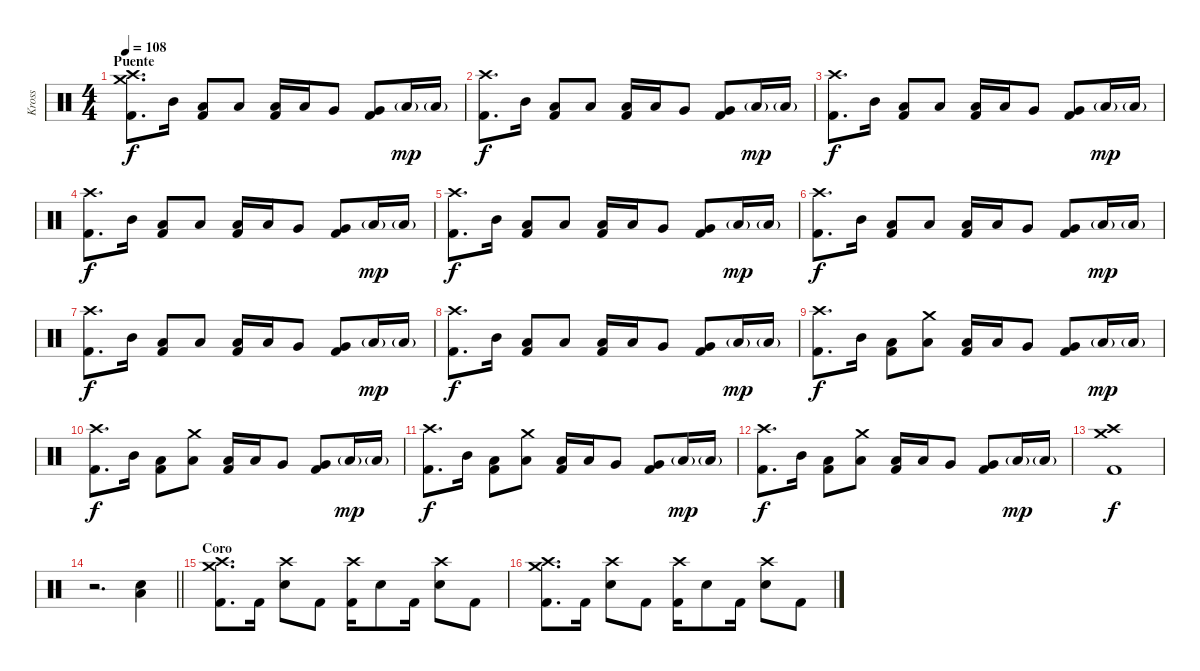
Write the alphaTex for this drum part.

\track ("Kross" "Kross") {instrument percussion}
\staff {score}
\articulation defaults
\ts (4 4)
\section ("" "Puente")
\tempo 108
\clef neutral
\ks c
("Crash medium (hit)" "Crash high (hit)" "Kick (hit) 2").8{d dy f} "Mid Tom (hit)".16 ("Low Tom (hit)" "Kick (hit) 2").8 "Low Tom (hit)".8 ("Low Tom (hit)" "Kick (hit) 2").16 "Low Tom (hit)".16 "Very Low Tom (hit)".8 ("Very Low Tom (hit)" "Kick (hit) 2").8 "Low Floor Tom (hit)"{g}.16{dy mp} "Low Floor Tom (hit)"{g}.16 |
("Crash high (hit)" "Kick (hit) 2").8{d dy f} "Mid Tom (hit)".16 ("Low Tom (hit)" "Kick (hit) 2").8 "Low Tom (hit)".8 ("Low Tom (hit)" "Kick (hit) 2").16 "Low Tom (hit)".16 "Very Low Tom (hit)".8 ("Very Low Tom (hit)" "Kick (hit) 2").8 "Low Floor Tom (hit)"{g}.16{dy mp} "Low Floor Tom (hit)"{g}.16 |
("Crash high (hit)" "Kick (hit) 2").8{d dy f} "Mid Tom (hit)".16 ("Low Tom (hit)" "Kick (hit) 2").8 "Low Tom (hit)".8 ("Low Tom (hit)" "Kick (hit) 2").16 "Low Tom (hit)".16 "Very Low Tom (hit)".8 ("Very Low Tom (hit)" "Kick (hit) 2").8 "Low Floor Tom (hit)"{g}.16{dy mp} "Low Floor Tom (hit)"{g}.16 |
("Crash high (hit)" "Kick (hit) 2").8{d dy f} "Mid Tom (hit)".16 ("Low Tom (hit)" "Kick (hit) 2").8 "Low Tom (hit)".8 ("Low Tom (hit)" "Kick (hit) 2").16 "Low Tom (hit)".16 "Very Low Tom (hit)".8 ("Very Low Tom (hit)" "Kick (hit) 2").8 "Low Floor Tom (hit)"{g}.16{dy mp} "Low Floor Tom (hit)"{g}.16 |
("Crash high (hit)" "Kick (hit) 2").8{d dy f} "Mid Tom (hit)".16 ("Low Tom (hit)" "Kick (hit) 2").8 "Low Tom (hit)".8 ("Low Tom (hit)" "Kick (hit) 2").16 "Low Tom (hit)".16 "Very Low Tom (hit)".8 ("Very Low Tom (hit)" "Kick (hit) 2").8 "Low Floor Tom (hit)"{g}.16{dy mp} "Low Floor Tom (hit)"{g}.16 |
("Crash high (hit)" "Kick (hit) 2").8{d dy f} "Mid Tom (hit)".16 ("Low Tom (hit)" "Kick (hit) 2").8 "Low Tom (hit)".8 ("Low Tom (hit)" "Kick (hit) 2").16 "Low Tom (hit)".16 "Very Low Tom (hit)".8 ("Very Low Tom (hit)" "Kick (hit) 2").8 "Low Floor Tom (hit)"{g}.16{dy mp} "Low Floor Tom (hit)"{g}.16 |
("Crash high (hit)" "Kick (hit) 2").8{d dy f} "Mid Tom (hit)".16 ("Low Tom (hit)" "Kick (hit) 2").8 "Low Tom (hit)".8 ("Low Tom (hit)" "Kick (hit) 2").16 "Low Tom (hit)".16 "Very Low Tom (hit)".8 ("Very Low Tom (hit)" "Kick (hit) 2").8 "Low Floor Tom (hit)"{g}.16{dy mp} "Low Floor Tom (hit)"{g}.16 |
("Crash high (hit)" "Kick (hit) 2").8{d dy f} "Mid Tom (hit)".16 ("Low Tom (hit)" "Kick (hit) 2").8 "Low Tom (hit)".8 ("Low Tom (hit)" "Kick (hit) 2").16 "Low Tom (hit)".16 "Very Low Tom (hit)".8 ("Very Low Tom (hit)" "Kick (hit) 2").8 "Low Floor Tom (hit)"{g}.16{dy mp} "Low Floor Tom (hit)"{g}.16 |
("Crash high (hit)" "Kick (hit) 2").8{d dy f} "Mid Tom (hit)".16 ("Low Tom (hit)" "Kick (hit) 2").8 ("Crash medium (hit)" "Low Tom (hit)").8 ("Low Tom (hit)" "Kick (hit) 2").16 "Low Tom (hit)".16 "Very Low Tom (hit)".8 ("Very Low Tom (hit)" "Kick (hit) 2").8 "Low Floor Tom (hit)"{g}.16{dy mp} "Low Floor Tom (hit)"{g}.16 |
("Crash high (hit)" "Kick (hit) 2").8{d dy f} "Mid Tom (hit)".16 ("Low Tom (hit)" "Kick (hit) 2").8 ("Crash medium (hit)" "Low Tom (hit)").8 ("Low Tom (hit)" "Kick (hit) 2").16 "Low Tom (hit)".16 "Very Low Tom (hit)".8 ("Very Low Tom (hit)" "Kick (hit) 2").8 "Low Floor Tom (hit)"{g}.16{dy mp} "Low Floor Tom (hit)"{g}.16 |
("Crash high (hit)" "Kick (hit) 2").8{d dy f} "Mid Tom (hit)".16 ("Low Tom (hit)" "Kick (hit) 2").8 ("Crash medium (hit)" "Low Tom (hit)").8 ("Low Tom (hit)" "Kick (hit) 2").16 "Low Tom (hit)".16 "Very Low Tom (hit)".8 ("Very Low Tom (hit)" "Kick (hit) 2").8 "Low Floor Tom (hit)"{g}.16{dy mp} "Low Floor Tom (hit)"{g}.16 |
("Crash high (hit)" "Kick (hit) 2").8{d dy f} "Mid Tom (hit)".16 ("Low Tom (hit)" "Kick (hit) 2").8 ("Crash medium (hit)" "Low Tom (hit)").8 ("Low Tom (hit)" "Kick (hit) 2").16 "Low Tom (hit)".16 "Very Low Tom (hit)".8 ("Very Low Tom (hit)" "Kick (hit) 2").8 "Low Floor Tom (hit)"{g}.16{dy mp} "Low Floor Tom (hit)"{g}.16 |
("Crash medium (hit)" "Crash high (hit)" "Kick (hit) 2").1{dy f} |
\barLineRight lightlight
r.2{d} ("Electric Snare (hit)" "Low Floor Tom (hit)").4 |
\section ("" "Coro")
("Crash medium (hit)" "Crash high (hit)" "Kick (hit) 2").8{d} "Kick (hit) 2".16 ("Crash high (hit)" "Electric Snare (hit)").8 "Kick (hit) 2".8 ("Crash high (hit)" "Kick (hit) 2").16 "Electric Snare (hit)".8 "Kick (hit) 2".16 ("Crash high (hit)" "Electric Snare (hit)").8 "Kick (hit) 2".8 |
("Crash medium (hit)" "Crash high (hit)" "Kick (hit) 2").8{d} "Kick (hit) 2".16 ("Crash high (hit)" "Electric Snare (hit)").8 "Kick (hit) 2".8 ("Crash high (hit)" "Kick (hit) 2").16 "Electric Snare (hit)".8 "Kick (hit) 2".16 ("Crash high (hit)" "Electric Snare (hit)").8 "Kick (hit) 2".8
